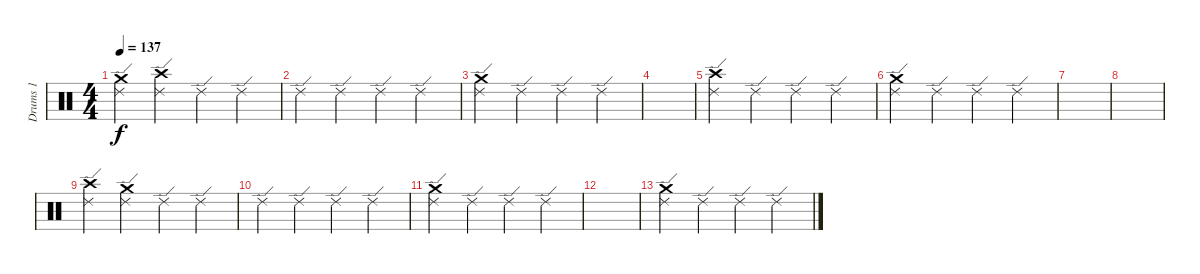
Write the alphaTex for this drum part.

\track ("Drums 1" "Drums 1") {instrument percussion}
\staff {score}
\articulation defaults
\ts (4 4)
\tempo 137
\clef neutral
\ks c
("Crash medium (hit)" "Ride (edge) 2").4{dy f} ("Crash high (hit)" "Ride (edge) 2").4 "Ride (edge) 2".4 "Ride (edge) 2".4 |
"Ride (edge) 2".4 "Ride (edge) 2".4 "Ride (edge) 2".4 "Ride (edge) 2".4 |
("Crash medium (hit)" "Ride (edge) 2").4 "Ride (edge) 2".4 "Ride (edge) 2".4 "Ride (edge) 2".4 |
|
("Crash high (hit)" "Ride (edge) 2").4 "Ride (edge) 2".4 "Ride (edge) 2".4 "Ride (edge) 2".4 |
("Crash medium (hit)" "Ride (edge) 2").4 "Ride (edge) 2".4 "Ride (edge) 2".4 "Ride (edge) 2".4 |
|
|
("Crash high (hit)" "Ride (edge) 2").4 ("Crash medium (hit)" "Ride (edge) 2").4 "Ride (edge) 2".4 "Ride (edge) 2".4 |
"Ride (edge) 2".4 "Ride (edge) 2".4 "Ride (edge) 2".4 "Ride (edge) 2".4 |
("Crash medium (hit)" "Ride (edge) 2").4 "Ride (edge) 2".4 "Ride (edge) 2".4 "Ride (edge) 2".4 |
|
("Crash medium (hit)" "Ride (edge) 2").4 "Ride (edge) 2".4 "Ride (edge) 2".4 "Ride (edge) 2".4
